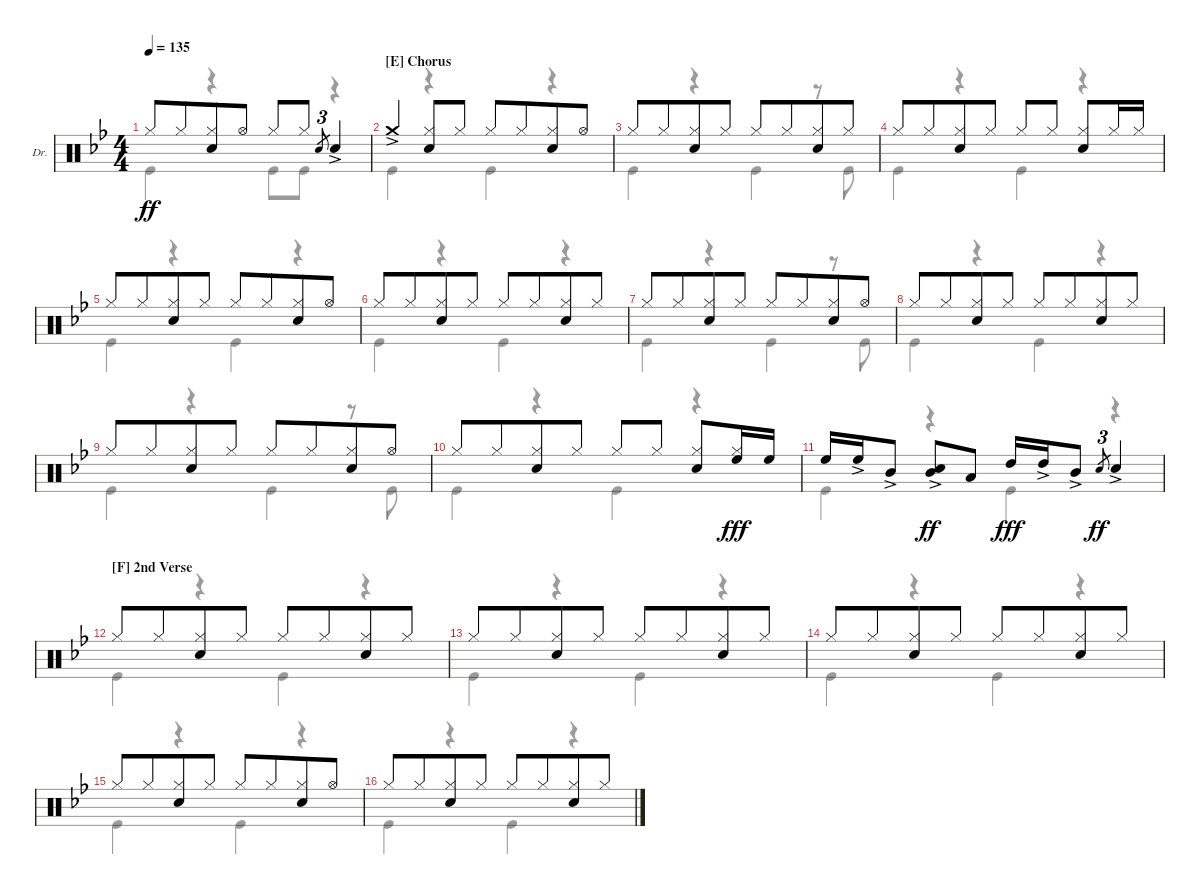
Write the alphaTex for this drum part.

\defaultSystemsLayout 4
\bracketExtendMode groupsimilarinstruments
\firstSystemTrackNameOrientation horizontal
\otherSystemsTrackNameOrientation horizontal
\track ("Drums" "Dr.") {instrument percussion}
\staff {score}
\articulation defaults
\voice
\ts (4 4)
\tempo 135
\clef neutral
\ks bb "Hi-Hat (closed)".8{dy ff beam merge} "Hi-Hat (closed)".8{beam merge}
("Hi-Hat (closed)" "Snare (hit) 2").8{beam merge} "Hi-Hat (open)".8 "Hi-Hat (closed)".8 "Hi-Hat (closed)".8 "Snare (hit) 2".8{tu (3 2) gr} "Snare (hit) 2"{ac}.4 |
\section ("E" "Chorus")
"Crash medium (hit)"{ac}.4{beam merge} ("Hi-Hat (closed)" "Snare (hit) 2").8{beam merge} "Hi-Hat (closed)".8 "Hi-Hat (closed)".8{beam merge} "Hi-Hat (closed)".8{beam merge} ("Hi-Hat (closed)" "Snare (hit) 2").8{beam merge} "Hi-Hat (open)".8 |
"Hi-Hat (closed)".8{beam merge} "Hi-Hat (closed)".8{beam merge} ("Hi-Hat (closed)" "Snare (hit) 2").8{beam merge} "Hi-Hat (closed)".8 "Hi-Hat (closed)".8{beam merge} "Hi-Hat (closed)".8{beam merge} ("Hi-Hat (closed)" "Snare (hit) 2").8{beam merge} "Hi-Hat (closed)".8 |
"Hi-Hat (closed)".8{beam merge} "Hi-Hat (closed)".8{beam merge} ("Hi-Hat (closed)" "Snare (hit) 2").8{beam merge} "Hi-Hat (closed)".8 "Hi-Hat (closed)".8{beam merge} "Hi-Hat (closed)".8{beam split} ("Hi-Hat (closed)" "Snare (hit) 2").8{beam merge} "Hi-Hat (closed)".16 "Hi-Hat (closed)".16 |
"Hi-Hat (closed)".8{beam merge} "Hi-Hat (closed)".8{beam merge} ("Hi-Hat (closed)" "Snare (hit) 2").8{beam merge} "Hi-Hat (closed)".8 "Hi-Hat (closed)".8{beam merge} "Hi-Hat (closed)".8{beam merge} ("Hi-Hat (closed)" "Snare (hit) 2").8{beam merge} "Hi-Hat (open)".8 |
"Hi-Hat (closed)".8{beam merge} "Hi-Hat (closed)".8{beam merge} ("Hi-Hat (closed)" "Snare (hit) 2").8{beam merge} "Hi-Hat (closed)".8 "Hi-Hat (closed)".8{beam merge} "Hi-Hat (closed)".8{beam merge} ("Hi-Hat (closed)" "Snare (hit) 2").8{beam merge} "Hi-Hat (closed)".8 |
"Hi-Hat (closed)".8{beam merge} "Hi-Hat (closed)".8{beam merge} ("Hi-Hat (closed)" "Snare (hit) 2").8{beam merge} "Hi-Hat (closed)".8 "Hi-Hat (closed)".8{beam merge} "Hi-Hat (closed)".8{beam merge} ("Hi-Hat (closed)" "Snare (hit) 2").8{beam merge} "Hi-Hat (open)".8 |
"Hi-Hat (closed)".8{beam merge} "Hi-Hat (closed)".8{beam merge} ("Hi-Hat (closed)" "Snare (hit) 2").8{beam merge} "Hi-Hat (closed)".8 "Hi-Hat (closed)".8{beam merge} "Hi-Hat (closed)".8{beam merge} ("Hi-Hat (closed)" "Snare (hit) 2").8{beam merge} "Hi-Hat (closed)".8 |
"Hi-Hat (closed)".8{beam merge} "Hi-Hat (closed)".8{beam merge} ("Hi-Hat (closed)" "Snare (hit) 2").8{beam merge} "Hi-Hat (closed)".8 "Hi-Hat (closed)".8{beam merge} "Hi-Hat (closed)".8{beam merge} ("Hi-Hat (closed)" "Snare (hit) 2").8{beam merge} "Hi-Hat (open)".8 |
"Hi-Hat (closed)".8{beam merge} "Hi-Hat (closed)".8{beam merge} ("Hi-Hat (closed)" "Snare (hit) 2").8{beam merge} "Hi-Hat (closed)".8 "Hi-Hat (closed)".8{beam merge} "Hi-Hat (closed)".8{beam split} ("Hi-Hat (closed)" "Snare (hit) 2").8{beam merge} ("Hi-Hat (closed)" "High Floor Tom (hit)").16{dy fff beam merge} "High Floor Tom (hit)".16 |
"High Floor Tom (hit)".16 "High Floor Tom (hit)"{ac}.16 "Mid Tom (hit)"{ac}.8 ("Mid Tom (hit)" "Snare (hit) 2"{ac}).8{dy ff} "Low Tom (hit)".8 "High Tom (hit)".16{dy fff} "High Tom (hit)"{ac}.16 "Mid Tom (hit)"{ac}.8 "Snare (hit) 2".8{tu (3 2) gr dy ff} "Snare (hit) 2"{ac}.4 |
\section ("F" "2nd Verse")
"Hi-Hat (closed)".8{beam merge} "Hi-Hat (closed)".8{beam merge} ("Hi-Hat (closed)" "Snare (hit) 2").8{beam merge} "Hi-Hat (closed)".8 "Hi-Hat (closed)".8{beam merge} "Hi-Hat (closed)".8{beam merge} ("Hi-Hat (closed)" "Snare (hit) 2").8{beam merge} "Hi-Hat (closed)".8 |
"Hi-Hat (closed)".8{beam merge} "Hi-Hat (closed)".8{beam merge} ("Hi-Hat (closed)" "Snare (hit) 2").8{beam merge} "Hi-Hat (closed)".8 "Hi-Hat (closed)".8{beam merge} "Hi-Hat (closed)".8{beam merge} ("Hi-Hat (closed)" "Snare (hit) 2").8{beam merge} "Hi-Hat (closed)".8 |
"Hi-Hat (closed)".8{beam merge} "Hi-Hat (closed)".8{beam merge} ("Hi-Hat (closed)" "Snare (hit) 2").8{beam merge} "Hi-Hat (closed)".8 "Hi-Hat (closed)".8{beam merge} "Hi-Hat (closed)".8{beam merge} ("Hi-Hat (closed)" "Snare (hit) 2").8{beam merge} "Hi-Hat (closed)".8 |
"Hi-Hat (closed)".8{beam merge} "Hi-Hat (closed)".8{beam merge} ("Hi-Hat (closed)" "Snare (hit) 2").8{beam merge} "Hi-Hat (closed)".8 "Hi-Hat (closed)".8{beam merge} "Hi-Hat (closed)".8{beam merge} ("Hi-Hat (closed)" "Snare (hit) 2").8{beam merge} "Hi-Hat (open)".8 |
"Hi-Hat (closed)".8{beam merge} "Hi-Hat (closed)".8{beam merge} ("Hi-Hat (closed)" "Snare (hit) 2").8{beam merge} "Hi-Hat (closed)".8 "Hi-Hat (closed)".8{beam merge} "Hi-Hat (closed)".8{beam merge} ("Hi-Hat (closed)" "Snare (hit) 2").8{beam merge} "Hi-Hat (closed)".8
\voice
\clef neutral
\ottava regular
\simile none
\ks bb "Kick (hit)".4{dy ff}
r.4 "Kick (hit)".8 "Kick (hit)".8 r.4 |
"Kick (hit)".4 r.4 "Kick (hit)".4 r.4 |
"Kick (hit)".4 r.4 "Kick (hit)".4 r.8 "Kick (hit)".8 |
"Kick (hit)".4 r.4 "Kick (hit)".4 r.4 |
"Kick (hit)".4 r.4 "Kick (hit)".4 r.4 |
"Kick (hit)".4 r.4 "Kick (hit)".4 r.4 |
"Kick (hit)".4 r.4 "Kick (hit)".4 r.8 "Kick (hit)".8 |
"Kick (hit)".4 r.4 "Kick (hit)".4 r.4 |
"Kick (hit)".4 r.4 "Kick (hit)".4 r.8 "Kick (hit)".8 |
"Kick (hit)".4 r.4 "Kick (hit)".4 r.4 |
"Kick (hit)".4 r.4 "Kick (hit)".4 r.4 |
"Kick (hit)".4 r.4 "Kick (hit)".4 r.4 |
"Kick (hit)".4 r.4 "Kick (hit)".4 r.4 |
"Kick (hit)".4 r.4 "Kick (hit)".4 r.4 |
"Kick (hit)".4 r.4 "Kick (hit)".4 r.4 |
"Kick (hit)".4 r.4 "Kick (hit)".4 r.4
